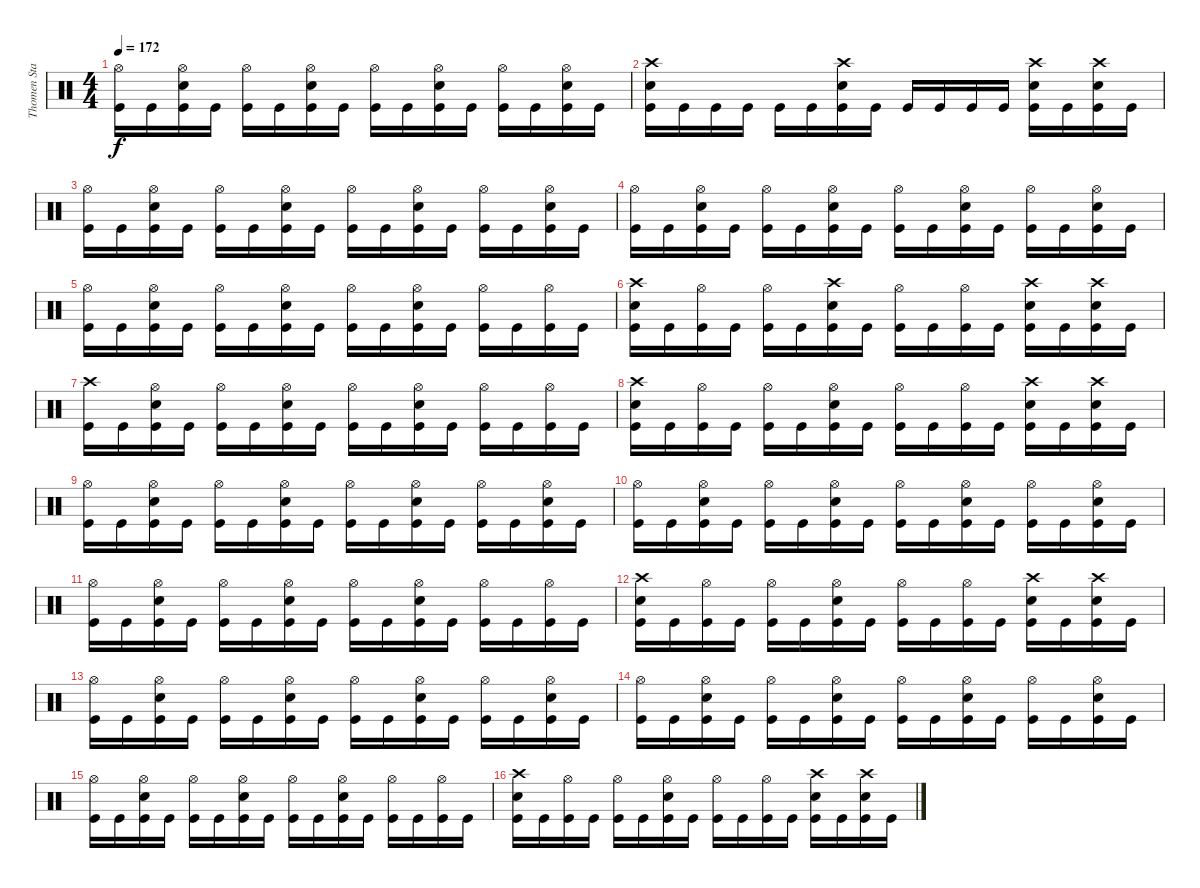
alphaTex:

\track ("Thomen Stauch" "Thomen Sta") {instrument percussion}
\staff {score}
\articulation defaults
\ts (4 4)
\tempo 172
\clef neutral
\ks c
("Hi-Hat (open)" "Kick (hit)").16{dy f} "Kick (hit)".16 ("Hi-Hat (open)" "Snare (hit) 2" "Kick (hit)").16 "Kick (hit)".16 ("Hi-Hat (open)" "Kick (hit)").16 "Kick (hit)".16 ("Hi-Hat (open)" "Snare (hit) 2" "Kick (hit)").16 "Kick (hit)".16 ("Hi-Hat (open)" "Kick (hit)").16 "Kick (hit)".16 ("Hi-Hat (open)" "Snare (hit) 2" "Kick (hit)").16 "Kick (hit)".16 ("Hi-Hat (open)" "Kick (hit)").16 "Kick (hit)".16 ("Hi-Hat (open)" "Snare (hit) 2" "Kick (hit)").16 "Kick (hit)".16 |
("Crash high (hit)" "Snare (hit) 2" "Kick (hit)").16 "Kick (hit)".16 "Kick (hit)".16 "Kick (hit)".16 "Kick (hit)".16 "Kick (hit)".16 ("Crash high (hit)" "Snare (hit) 2" "Kick (hit)").16 "Kick (hit)".16 "Kick (hit)".16 "Kick (hit)".16 "Kick (hit)".16 "Kick (hit)".16 ("Crash high (hit)" "Snare (hit) 2" "Kick (hit)").16 "Kick (hit)".16 ("Crash high (hit)" "Snare (hit) 2" "Kick (hit)").16 "Kick (hit)".16 |
("Hi-Hat (open)" "Kick (hit)").16 "Kick (hit)".16 ("Hi-Hat (open)" "Snare (hit) 2" "Kick (hit)").16 "Kick (hit)".16 ("Hi-Hat (open)" "Kick (hit)").16 "Kick (hit)".16 ("Hi-Hat (open)" "Snare (hit) 2" "Kick (hit)").16 "Kick (hit)".16 ("Hi-Hat (open)" "Kick (hit)").16 "Kick (hit)".16 ("Hi-Hat (open)" "Snare (hit) 2" "Kick (hit)").16 "Kick (hit)".16 ("Hi-Hat (open)" "Kick (hit)").16 "Kick (hit)".16 ("Hi-Hat (open)" "Snare (hit) 2" "Kick (hit)").16 "Kick (hit)".16 |
("Hi-Hat (open)" "Kick (hit)").16 "Kick (hit)".16 ("Hi-Hat (open)" "Snare (hit) 2" "Kick (hit)").16 "Kick (hit)".16 ("Hi-Hat (open)" "Kick (hit)").16 "Kick (hit)".16 ("Hi-Hat (open)" "Snare (hit) 2" "Kick (hit)").16 "Kick (hit)".16 ("Hi-Hat (open)" "Kick (hit)").16 "Kick (hit)".16 ("Hi-Hat (open)" "Snare (hit) 2" "Kick (hit)").16 "Kick (hit)".16 ("Hi-Hat (open)" "Kick (hit)").16 "Kick (hit)".16 ("Hi-Hat (open)" "Snare (hit) 2" "Kick (hit)").16 "Kick (hit)".16 |
("Hi-Hat (open)" "Kick (hit)").16 "Kick (hit)".16 ("Hi-Hat (open)" "Snare (hit) 2" "Kick (hit)").16 "Kick (hit)".16 ("Hi-Hat (open)" "Kick (hit)").16 "Kick (hit)".16 ("Hi-Hat (open)" "Snare (hit) 2" "Kick (hit)").16 "Kick (hit)".16 ("Hi-Hat (open)" "Kick (hit)").16 "Kick (hit)".16 ("Hi-Hat (open)" "Snare (hit) 2" "Kick (hit)").16 "Kick (hit)".16 ("Hi-Hat (open)" "Kick (hit)").16 "Kick (hit)".16 ("Hi-Hat (open)" "Kick (hit)").16 "Kick (hit)".16 |
("Crash high (hit)" "Snare (hit) 2" "Kick (hit)").16 "Kick (hit)".16 ("Hi-Hat (open)" "Kick (hit)").16 "Kick (hit)".16 ("Hi-Hat (open)" "Kick (hit)").16 "Kick (hit)".16 ("Crash high (hit)" "Snare (hit) 2" "Kick (hit)").16 "Kick (hit)".16 ("Hi-Hat (open)" "Kick (hit)").16 "Kick (hit)".16 ("Hi-Hat (open)" "Kick (hit)").16 "Kick (hit)".16 ("Crash high (hit)" "Snare (hit) 2" "Kick (hit)").16 "Kick (hit)".16 ("Crash high (hit)" "Snare (hit) 2" "Kick (hit)").16 "Kick (hit)".16 |
("Crash high (hit)" "Kick (hit)").16 "Kick (hit)".16 ("Hi-Hat (open)" "Snare (hit) 2" "Kick (hit)").16 "Kick (hit)".16 ("Hi-Hat (open)" "Kick (hit)").16 "Kick (hit)".16 ("Hi-Hat (open)" "Snare (hit) 2" "Kick (hit)").16 "Kick (hit)".16 ("Hi-Hat (open)" "Kick (hit)").16 "Kick (hit)".16 ("Hi-Hat (open)" "Snare (hit) 2" "Kick (hit)").16 "Kick (hit)".16 ("Hi-Hat (open)" "Kick (hit)").16 "Kick (hit)".16 ("Hi-Hat (open)" "Kick (hit)").16 "Kick (hit)".16 |
("Crash high (hit)" "Snare (hit) 2" "Kick (hit)").16 "Kick (hit)".16 ("Hi-Hat (open)" "Kick (hit)").16 "Kick (hit)".16 ("Hi-Hat (open)" "Kick (hit)").16 "Kick (hit)".16 ("Hi-Hat (open)" "Snare (hit) 2" "Kick (hit)").16 "Kick (hit)".16 ("Hi-Hat (open)" "Kick (hit)").16 "Kick (hit)".16 ("Hi-Hat (open)" "Kick (hit)").16 "Kick (hit)".16 ("Crash high (hit)" "Snare (hit) 2" "Kick (hit)").16 "Kick (hit)".16 ("Crash high (hit)" "Snare (hit) 2" "Kick (hit)").16 "Kick (hit)".16 |
("Hi-Hat (open)" "Kick (hit)").16 "Kick (hit)".16 ("Hi-Hat (open)" "Snare (hit) 2" "Kick (hit)").16 "Kick (hit)".16 ("Hi-Hat (open)" "Kick (hit)").16 "Kick (hit)".16 ("Hi-Hat (open)" "Snare (hit) 2" "Kick (hit)").16 "Kick (hit)".16 ("Hi-Hat (open)" "Kick (hit)").16 "Kick (hit)".16 ("Hi-Hat (open)" "Snare (hit) 2" "Kick (hit)").16 "Kick (hit)".16 ("Hi-Hat (open)" "Kick (hit)").16 "Kick (hit)".16 ("Hi-Hat (open)" "Snare (hit) 2" "Kick (hit)").16 "Kick (hit)".16 |
("Hi-Hat (open)" "Kick (hit)").16 "Kick (hit)".16 ("Hi-Hat (open)" "Snare (hit) 2" "Kick (hit)").16 "Kick (hit)".16 ("Hi-Hat (open)" "Kick (hit)").16 "Kick (hit)".16 ("Hi-Hat (open)" "Snare (hit) 2" "Kick (hit)").16 "Kick (hit)".16 ("Hi-Hat (open)" "Kick (hit)").16 "Kick (hit)".16 ("Hi-Hat (open)" "Snare (hit) 2" "Kick (hit)").16 "Kick (hit)".16 ("Hi-Hat (open)" "Kick (hit)").16 "Kick (hit)".16 ("Hi-Hat (open)" "Snare (hit) 2" "Kick (hit)").16 "Kick (hit)".16 |
("Hi-Hat (open)" "Kick (hit)").16 "Kick (hit)".16 ("Hi-Hat (open)" "Snare (hit) 2" "Kick (hit)").16 "Kick (hit)".16 ("Hi-Hat (open)" "Kick (hit)").16 "Kick (hit)".16 ("Hi-Hat (open)" "Snare (hit) 2" "Kick (hit)").16 "Kick (hit)".16 ("Hi-Hat (open)" "Kick (hit)").16 "Kick (hit)".16 ("Hi-Hat (open)" "Snare (hit) 2" "Kick (hit)").16 "Kick (hit)".16 ("Hi-Hat (open)" "Kick (hit)").16 "Kick (hit)".16 ("Hi-Hat (open)" "Kick (hit)").16 "Kick (hit)".16 |
("Crash high (hit)" "Snare (hit) 2" "Kick (hit)").16 "Kick (hit)".16 ("Hi-Hat (open)" "Kick (hit)").16 "Kick (hit)".16 ("Hi-Hat (open)" "Kick (hit)").16 "Kick (hit)".16 ("Hi-Hat (open)" "Snare (hit) 2" "Kick (hit)").16 "Kick (hit)".16 ("Hi-Hat (open)" "Kick (hit)").16 "Kick (hit)".16 ("Hi-Hat (open)" "Kick (hit)").16 "Kick (hit)".16 ("Crash high (hit)" "Snare (hit) 2" "Kick (hit)").16 "Kick (hit)".16 ("Crash high (hit)" "Snare (hit) 2" "Kick (hit)").16 "Kick (hit)".16 |
("Hi-Hat (open)" "Kick (hit)").16 "Kick (hit)".16 ("Hi-Hat (open)" "Snare (hit) 2" "Kick (hit)").16 "Kick (hit)".16 ("Hi-Hat (open)" "Kick (hit)").16 "Kick (hit)".16 ("Hi-Hat (open)" "Snare (hit) 2" "Kick (hit)").16 "Kick (hit)".16 ("Hi-Hat (open)" "Kick (hit)").16 "Kick (hit)".16 ("Hi-Hat (open)" "Snare (hit) 2" "Kick (hit)").16 "Kick (hit)".16 ("Hi-Hat (open)" "Kick (hit)").16 "Kick (hit)".16 ("Hi-Hat (open)" "Snare (hit) 2" "Kick (hit)").16 "Kick (hit)".16 |
("Hi-Hat (open)" "Kick (hit)").16 "Kick (hit)".16 ("Hi-Hat (open)" "Snare (hit) 2" "Kick (hit)").16 "Kick (hit)".16 ("Hi-Hat (open)" "Kick (hit)").16 "Kick (hit)".16 ("Hi-Hat (open)" "Snare (hit) 2" "Kick (hit)").16 "Kick (hit)".16 ("Hi-Hat (open)" "Kick (hit)").16 "Kick (hit)".16 ("Hi-Hat (open)" "Snare (hit) 2" "Kick (hit)").16 "Kick (hit)".16 ("Hi-Hat (open)" "Kick (hit)").16 "Kick (hit)".16 ("Hi-Hat (open)" "Snare (hit) 2" "Kick (hit)").16 "Kick (hit)".16 |
("Hi-Hat (open)" "Kick (hit)").16 "Kick (hit)".16 ("Hi-Hat (open)" "Snare (hit) 2" "Kick (hit)").16 "Kick (hit)".16 ("Hi-Hat (open)" "Kick (hit)").16 "Kick (hit)".16 ("Hi-Hat (open)" "Snare (hit) 2" "Kick (hit)").16 "Kick (hit)".16 ("Hi-Hat (open)" "Kick (hit)").16 "Kick (hit)".16 ("Hi-Hat (open)" "Snare (hit) 2" "Kick (hit)").16 "Kick (hit)".16 ("Hi-Hat (open)" "Kick (hit)").16 "Kick (hit)".16 ("Hi-Hat (open)" "Kick (hit)").16 "Kick (hit)".16 |
("Crash high (hit)" "Snare (hit) 2" "Kick (hit)").16 "Kick (hit)".16 ("Hi-Hat (open)" "Kick (hit)").16 "Kick (hit)".16 ("Hi-Hat (open)" "Kick (hit)").16 "Kick (hit)".16 ("Hi-Hat (open)" "Snare (hit) 2" "Kick (hit)").16 "Kick (hit)".16 ("Hi-Hat (open)" "Kick (hit)").16 "Kick (hit)".16 ("Hi-Hat (open)" "Kick (hit)").16 "Kick (hit)".16 ("Crash high (hit)" "Snare (hit) 2" "Kick (hit)").16 "Kick (hit)".16 ("Crash high (hit)" "Snare (hit) 2" "Kick (hit)").16 "Kick (hit)".16
